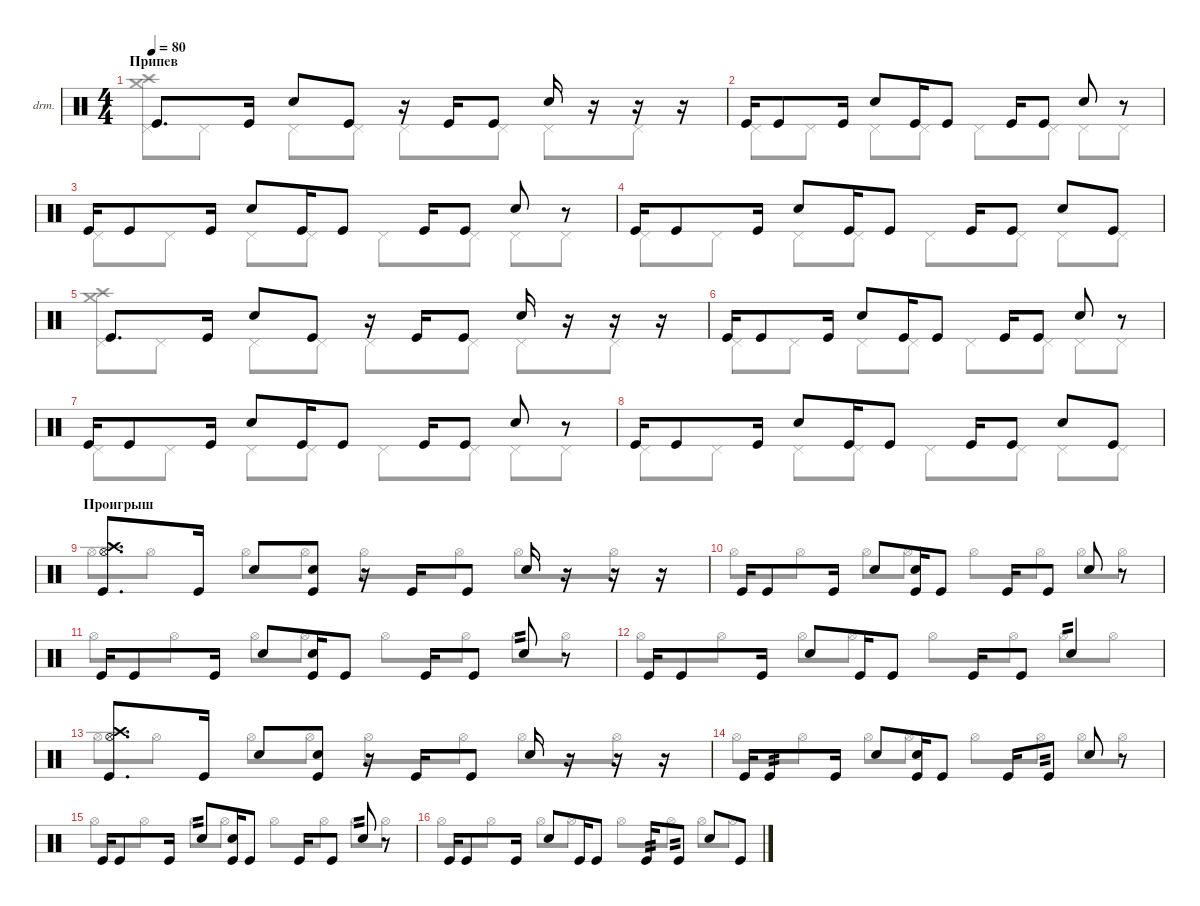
\defaultSystemsLayout 4
\hideDynamics
\bracketExtendMode nobrackets
\firstSystemTrackNameOrientation horizontal
\otherSystemsTrackNameOrientation horizontal
\track ("Drumkit" "drm.") {instrument percussion}
\staff {score}
\articulation defaults
\voice
\ts (4 4)
\section ("" "Припев")
\tempo 80
\clef neutral
\ks c "Kick (hit)".8{d dy mf} "Kick (hit)".16 "Snare (hit) 2".8 "Kick (hit)".8
r.16 "Kick (hit)".16 "Kick (hit)".8 "Snare (hit) 2".16 r.16 r.16 r.16 |
"Kick (hit)".16 "Kick (hit)".8 "Kick (hit)".16 "Snare (hit) 2".8 "Kick (hit)".16 "Kick (hit)".8 "Kick (hit)".16 "Kick (hit)".8 "Snare (hit) 2".8 r.8 |
"Kick (hit)".16 "Kick (hit)".8 "Kick (hit)".16 "Snare (hit) 2".8 "Kick (hit)".16 "Kick (hit)".8 "Kick (hit)".16 "Kick (hit)".8 "Snare (hit) 2".8 r.8 |
"Kick (hit)".16 "Kick (hit)".8 "Kick (hit)".16 "Snare (hit) 2".8 "Kick (hit)".16 "Kick (hit)".8 "Kick (hit)".16 "Kick (hit)".8 "Snare (hit) 2".8 "Kick (hit)".8 |
"Kick (hit)".8{d} "Kick (hit)".16 "Snare (hit) 2".8 "Kick (hit)".8 r.16 "Kick (hit)".16 "Kick (hit)".8 "Snare (hit) 2".16 r.16 r.16 r.16 |
"Kick (hit)".16 "Kick (hit)".8 "Kick (hit)".16 "Snare (hit) 2".8 "Kick (hit)".16 "Kick (hit)".8 "Kick (hit)".16 "Kick (hit)".8 "Snare (hit) 2".8 r.8 |
"Kick (hit)".16 "Kick (hit)".8 "Kick (hit)".16 "Snare (hit) 2".8 "Kick (hit)".16 "Kick (hit)".8 "Kick (hit)".16 "Kick (hit)".8 "Snare (hit) 2".8 r.8 |
"Kick (hit)".16 "Kick (hit)".8 "Kick (hit)".16 "Snare (hit) 2".8 "Kick (hit)".16 "Kick (hit)".8 "Kick (hit)".16 "Kick (hit)".8 "Snare (hit) 2".8 "Kick (hit)".8 |
\section ("" "Проигрыш")
("Kick (hit)" "Hi-Hat (open)" "Crash high (hit)").8{d} "Kick (hit)".16 "Snare (hit) 2".8 ("Kick (hit)" "Snare (hit) 2").8 r.16 "Kick (hit)".16 "Kick (hit)".8 "Snare (hit) 2".16 r.16 r.16 r.16 |
"Kick (hit)".16 "Kick (hit)".8 "Kick (hit)".16 "Snare (hit) 2".8 ("Kick (hit)" "Snare (hit) 2").16 "Kick (hit)".8 "Kick (hit)".16 "Kick (hit)".8 "Snare (hit) 2".8 r.8 |
"Kick (hit)".16 "Kick (hit)".8 "Kick (hit)".16 "Snare (hit) 2".8 ("Kick (hit)" "Snare (hit) 2").16 "Kick (hit)".8 "Kick (hit)".16 "Kick (hit)".8 "Snare (hit) 2".8{tp 2} r.8 |
"Kick (hit)".16 "Kick (hit)".8 "Kick (hit)".16 "Snare (hit) 2".8 "Kick (hit)".16 "Kick (hit)".8 "Kick (hit)".16 "Kick (hit)".8 "Snare (hit) 2".4{tp 2} |
("Kick (hit)" "Hi-Hat (open)" "Crash high (hit)").8{d} "Kick (hit)".16 "Snare (hit) 2".8 ("Kick (hit)" "Snare (hit) 2").8 r.16 "Kick (hit)".16 "Kick (hit)".8 "Snare (hit) 2".16 r.16 r.16 r.16 |
"Kick (hit)".16 "Kick (hit)".8{tp 2} "Kick (hit)".16 "Snare (hit) 2".8 ("Kick (hit)" "Snare (hit) 2").16 "Kick (hit)".8 "Kick (hit)".16 "Kick (hit)".8{tp 2} "Snare (hit) 2".8 r.8 |
"Kick (hit)".16 "Kick (hit)".8 "Kick (hit)".16 "Snare (hit) 2".8{tp 2} ("Kick (hit)" "Snare (hit) 2").16 "Kick (hit)".8 "Kick (hit)".16 "Kick (hit)".8 "Snare (hit) 2".8{tp 2} r.8 |
"Kick (hit)".16 "Kick (hit)".8 "Kick (hit)".16 "Snare (hit) 2".8 "Kick (hit)".16 "Kick (hit)".8 "Kick (hit)".16{tp 2} "Kick (hit)".8{tp 2} "Snare (hit) 2".8 "Kick (hit)".8
\voice
\clef neutral
\ottava regular
\simile none
\ks c
("Pedal Hi-Hat (hit)" "Crash medium (hit)" "Crash high (hit)").8{dy mf} "Pedal Hi-Hat (hit)".8 "Pedal Hi-Hat (hit)".8 "Pedal Hi-Hat (hit)".8 "Pedal Hi-Hat (hit)".8 "Pedal Hi-Hat (hit)".8 "Pedal Hi-Hat (hit)".8 "Pedal Hi-Hat (hit)".8 |
"Pedal Hi-Hat (hit)".8 "Pedal Hi-Hat (hit)".8 "Pedal Hi-Hat (hit)".8 "Pedal Hi-Hat (hit)".8 "Pedal Hi-Hat (hit)".8 "Pedal Hi-Hat (hit)".8 "Pedal Hi-Hat (hit)".8 "Pedal Hi-Hat (hit)".8 |
"Pedal Hi-Hat (hit)".8 "Pedal Hi-Hat (hit)".8 "Pedal Hi-Hat (hit)".8 "Pedal Hi-Hat (hit)".8 "Pedal Hi-Hat (hit)".8 "Pedal Hi-Hat (hit)".8 "Pedal Hi-Hat (hit)".8 "Pedal Hi-Hat (hit)".8 |
"Pedal Hi-Hat (hit)".8 "Pedal Hi-Hat (hit)".8 "Pedal Hi-Hat (hit)".8 "Pedal Hi-Hat (hit)".8 "Pedal Hi-Hat (hit)".8 "Pedal Hi-Hat (hit)".8 "Pedal Hi-Hat (hit)".8 "Pedal Hi-Hat (hit)".8 |
("Pedal Hi-Hat (hit)" "Crash medium (hit)" "Crash high (hit)").8 "Pedal Hi-Hat (hit)".8 "Pedal Hi-Hat (hit)".8 "Pedal Hi-Hat (hit)".8 "Pedal Hi-Hat (hit)".8 "Pedal Hi-Hat (hit)".8 "Pedal Hi-Hat (hit)".8 "Pedal Hi-Hat (hit)".8 |
"Pedal Hi-Hat (hit)".8 "Pedal Hi-Hat (hit)".8 "Pedal Hi-Hat (hit)".8 "Pedal Hi-Hat (hit)".8 "Pedal Hi-Hat (hit)".8 "Pedal Hi-Hat (hit)".8 "Pedal Hi-Hat (hit)".8 "Pedal Hi-Hat (hit)".8 |
"Pedal Hi-Hat (hit)".8 "Pedal Hi-Hat (hit)".8 "Pedal Hi-Hat (hit)".8 "Pedal Hi-Hat (hit)".8 "Pedal Hi-Hat (hit)".8 "Pedal Hi-Hat (hit)".8 "Pedal Hi-Hat (hit)".8 "Pedal Hi-Hat (hit)".8 |
"Pedal Hi-Hat (hit)".8 "Pedal Hi-Hat (hit)".8 "Pedal Hi-Hat (hit)".8 "Pedal Hi-Hat (hit)".8 "Pedal Hi-Hat (hit)".8 "Pedal Hi-Hat (hit)".8 "Pedal Hi-Hat (hit)".8 "Pedal Hi-Hat (hit)".8 |
"Hi-Hat (open)".8 "Hi-Hat (open)".8 "Hi-Hat (open)".8 "Hi-Hat (open)".8 "Hi-Hat (open)".8 "Hi-Hat (open)".8 "Hi-Hat (open)".8 "Hi-Hat (open)".8 |
"Hi-Hat (open)".8 "Hi-Hat (open)".8 "Hi-Hat (open)".8 "Hi-Hat (open)".8 "Hi-Hat (open)".8 "Hi-Hat (open)".8 "Hi-Hat (open)".8 "Hi-Hat (open)".8 |
"Hi-Hat (open)".8 "Hi-Hat (open)".8 "Hi-Hat (open)".8 "Hi-Hat (open)".8 "Hi-Hat (open)".8 "Hi-Hat (open)".8 "Hi-Hat (open)".8 "Hi-Hat (open)".8 |
"Hi-Hat (open)".8 "Hi-Hat (open)".8 "Hi-Hat (open)".8 "Hi-Hat (open)".8 "Hi-Hat (open)".8 "Hi-Hat (open)".8 "Hi-Hat (open)".8 "Hi-Hat (open)".8 |
"Hi-Hat (open)".8 "Hi-Hat (open)".8 "Hi-Hat (open)".8 "Hi-Hat (open)".8 "Hi-Hat (open)".8 "Hi-Hat (open)".8 "Hi-Hat (open)".8 "Hi-Hat (open)".8 |
"Hi-Hat (open)".8 "Hi-Hat (open)".8 "Hi-Hat (open)".8 "Hi-Hat (open)".8 "Hi-Hat (open)".8 "Hi-Hat (open)".8 "Hi-Hat (open)".8 "Hi-Hat (open)".8 |
"Hi-Hat (open)".8 "Hi-Hat (open)".8 "Hi-Hat (open)".8 "Hi-Hat (open)".8 "Hi-Hat (open)".8 "Hi-Hat (open)".8 "Hi-Hat (open)".8 "Hi-Hat (open)".8 |
"Hi-Hat (open)".8 "Hi-Hat (open)".8 "Hi-Hat (open)".8 "Hi-Hat (open)".8 "Hi-Hat (open)".8 "Hi-Hat (open)".8 "Hi-Hat (open)".8 "Hi-Hat (open)".8
